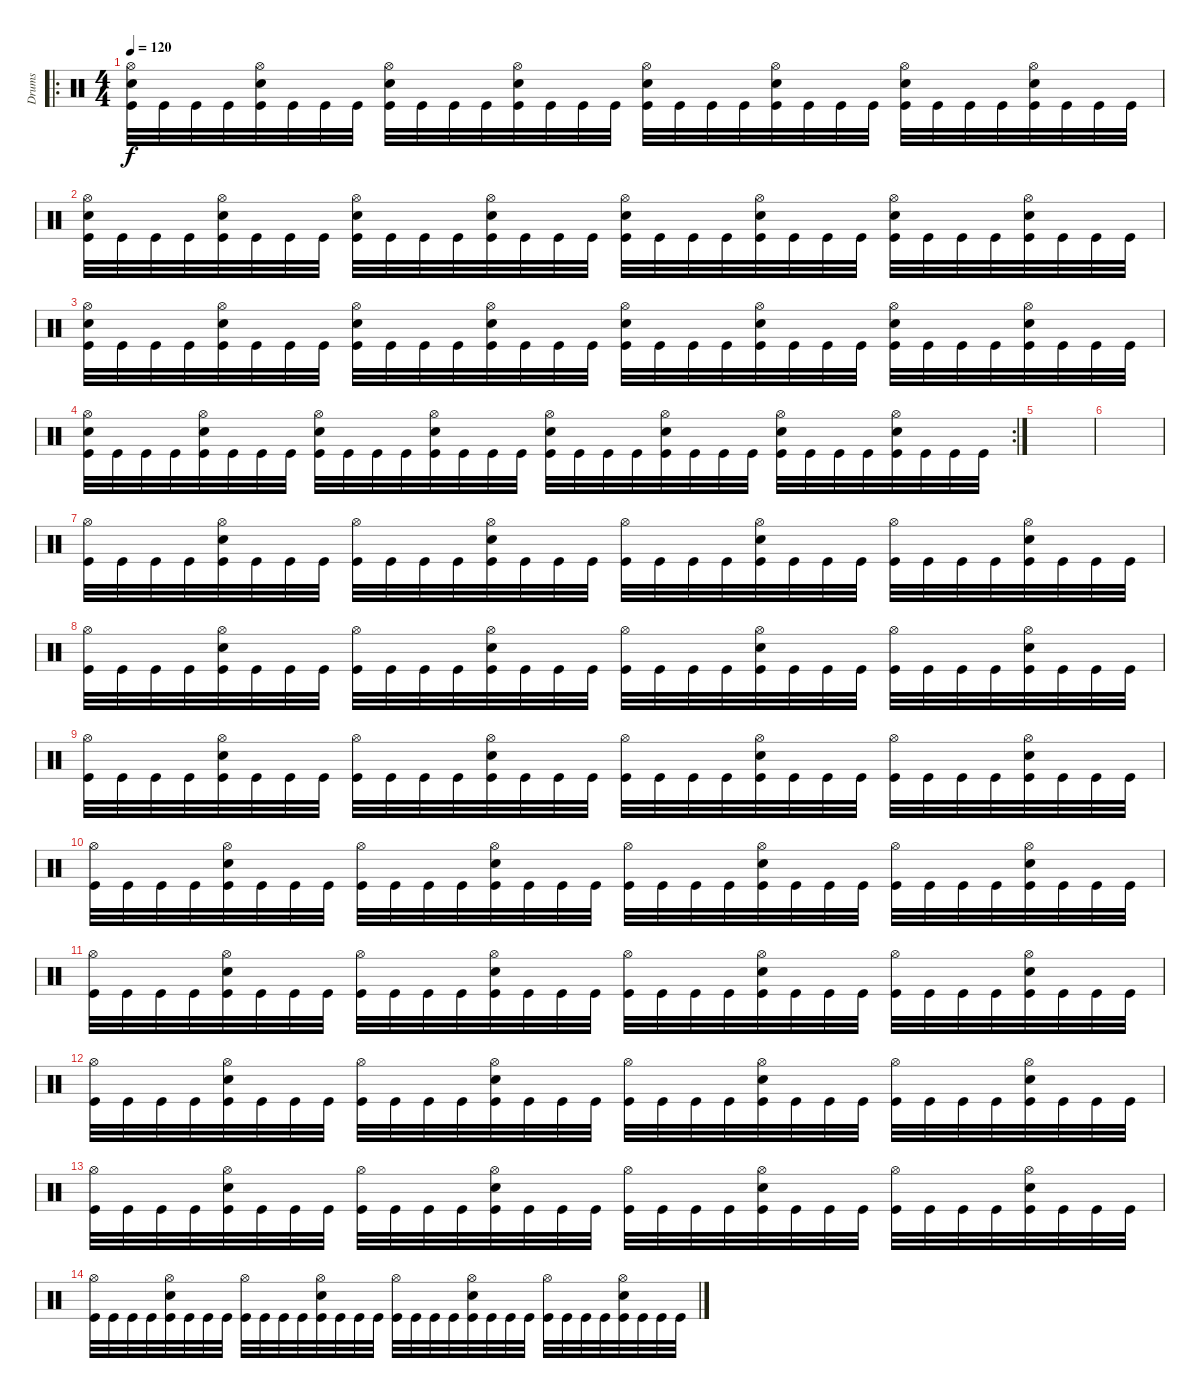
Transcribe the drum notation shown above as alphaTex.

\track ("Drums" "Drums") {instrument percussion}
\staff {score}
\articulation defaults
\ro
\ts (4 4)
\tempo 120
\clef neutral
\ks c
("Hi-Hat (open)" "Snare (hit) 2" "Kick (hit)").32{dy f} "Kick (hit)".32 "Kick (hit)".32 "Kick (hit)".32 ("Hi-Hat (open)" "Snare (hit) 2" "Kick (hit)").32 "Kick (hit)".32 "Kick (hit)".32 "Kick (hit)".32 ("Hi-Hat (open)" "Snare (hit) 2" "Kick (hit)").32 "Kick (hit)".32 "Kick (hit)".32 "Kick (hit)".32 ("Hi-Hat (open)" "Snare (hit) 2" "Kick (hit)").32 "Kick (hit)".32 "Kick (hit)".32 "Kick (hit)".32 ("Hi-Hat (open)" "Snare (hit) 2" "Kick (hit)").32 "Kick (hit)".32 "Kick (hit)".32 "Kick (hit)".32 ("Hi-Hat (open)" "Snare (hit) 2" "Kick (hit)").32 "Kick (hit)".32 "Kick (hit)".32 "Kick (hit)".32 ("Hi-Hat (open)" "Snare (hit) 2" "Kick (hit)").32 "Kick (hit)".32 "Kick (hit)".32 "Kick (hit)".32 ("Hi-Hat (open)" "Snare (hit) 2" "Kick (hit)").32 "Kick (hit)".32 "Kick (hit)".32 "Kick (hit)".32 |
("Hi-Hat (open)" "Snare (hit) 2" "Kick (hit)").32 "Kick (hit)".32 "Kick (hit)".32 "Kick (hit)".32 ("Hi-Hat (open)" "Snare (hit) 2" "Kick (hit)").32 "Kick (hit)".32 "Kick (hit)".32 "Kick (hit)".32 ("Hi-Hat (open)" "Snare (hit) 2" "Kick (hit)").32 "Kick (hit)".32 "Kick (hit)".32 "Kick (hit)".32 ("Hi-Hat (open)" "Snare (hit) 2" "Kick (hit)").32 "Kick (hit)".32 "Kick (hit)".32 "Kick (hit)".32 ("Hi-Hat (open)" "Snare (hit) 2" "Kick (hit)").32 "Kick (hit)".32 "Kick (hit)".32 "Kick (hit)".32 ("Hi-Hat (open)" "Snare (hit) 2" "Kick (hit)").32 "Kick (hit)".32 "Kick (hit)".32 "Kick (hit)".32 ("Hi-Hat (open)" "Snare (hit) 2" "Kick (hit)").32 "Kick (hit)".32 "Kick (hit)".32 "Kick (hit)".32 ("Hi-Hat (open)" "Snare (hit) 2" "Kick (hit)").32 "Kick (hit)".32 "Kick (hit)".32 "Kick (hit)".32 |
("Hi-Hat (open)" "Snare (hit) 2" "Kick (hit)").32 "Kick (hit)".32 "Kick (hit)".32 "Kick (hit)".32 ("Hi-Hat (open)" "Snare (hit) 2" "Kick (hit)").32 "Kick (hit)".32 "Kick (hit)".32 "Kick (hit)".32 ("Hi-Hat (open)" "Snare (hit) 2" "Kick (hit)").32 "Kick (hit)".32 "Kick (hit)".32 "Kick (hit)".32 ("Hi-Hat (open)" "Snare (hit) 2" "Kick (hit)").32 "Kick (hit)".32 "Kick (hit)".32 "Kick (hit)".32 ("Hi-Hat (open)" "Snare (hit) 2" "Kick (hit)").32 "Kick (hit)".32 "Kick (hit)".32 "Kick (hit)".32 ("Hi-Hat (open)" "Snare (hit) 2" "Kick (hit)").32 "Kick (hit)".32 "Kick (hit)".32 "Kick (hit)".32 ("Hi-Hat (open)" "Snare (hit) 2" "Kick (hit)").32 "Kick (hit)".32 "Kick (hit)".32 "Kick (hit)".32 ("Hi-Hat (open)" "Snare (hit) 2" "Kick (hit)").32 "Kick (hit)".32 "Kick (hit)".32 "Kick (hit)".32 |
\rc 2
("Hi-Hat (open)" "Snare (hit) 2" "Kick (hit)").32 "Kick (hit)".32 "Kick (hit)".32 "Kick (hit)".32 ("Hi-Hat (open)" "Snare (hit) 2" "Kick (hit)").32 "Kick (hit)".32 "Kick (hit)".32 "Kick (hit)".32 ("Hi-Hat (open)" "Snare (hit) 2" "Kick (hit)").32 "Kick (hit)".32 "Kick (hit)".32 "Kick (hit)".32 ("Hi-Hat (open)" "Snare (hit) 2" "Kick (hit)").32 "Kick (hit)".32 "Kick (hit)".32 "Kick (hit)".32 ("Hi-Hat (open)" "Snare (hit) 2" "Kick (hit)").32 "Kick (hit)".32 "Kick (hit)".32 "Kick (hit)".32 ("Hi-Hat (open)" "Snare (hit) 2" "Kick (hit)").32 "Kick (hit)".32 "Kick (hit)".32 "Kick (hit)".32 ("Hi-Hat (open)" "Snare (hit) 2" "Kick (hit)").32 "Kick (hit)".32 "Kick (hit)".32 "Kick (hit)".32 ("Hi-Hat (open)" "Snare (hit) 2" "Kick (hit)").32 "Kick (hit)".32 "Kick (hit)".32 "Kick (hit)".32 |
|
|
("Hi-Hat (open)" "Kick (hit)").32 "Kick (hit)".32 "Kick (hit)".32 "Kick (hit)".32 ("Hi-Hat (open)" "Snare (hit) 2" "Kick (hit)").32 "Kick (hit)".32 "Kick (hit)".32 "Kick (hit)".32 ("Hi-Hat (open)" "Kick (hit)").32 "Kick (hit)".32 "Kick (hit)".32 "Kick (hit)".32 ("Hi-Hat (open)" "Snare (hit) 2" "Kick (hit)").32 "Kick (hit)".32 "Kick (hit)".32 "Kick (hit)".32 ("Hi-Hat (open)" "Kick (hit)").32 "Kick (hit)".32 "Kick (hit)".32 "Kick (hit)".32 ("Hi-Hat (open)" "Snare (hit) 2" "Kick (hit)").32 "Kick (hit)".32 "Kick (hit)".32 "Kick (hit)".32 ("Hi-Hat (open)" "Kick (hit)").32 "Kick (hit)".32 "Kick (hit)".32 "Kick (hit)".32 ("Hi-Hat (open)" "Snare (hit) 2" "Kick (hit)").32 "Kick (hit)".32 "Kick (hit)".32 "Kick (hit)".32 |
("Hi-Hat (open)" "Kick (hit)").32 "Kick (hit)".32 "Kick (hit)".32 "Kick (hit)".32 ("Hi-Hat (open)" "Snare (hit) 2" "Kick (hit)").32 "Kick (hit)".32 "Kick (hit)".32 "Kick (hit)".32 ("Hi-Hat (open)" "Kick (hit)").32 "Kick (hit)".32 "Kick (hit)".32 "Kick (hit)".32 ("Hi-Hat (open)" "Snare (hit) 2" "Kick (hit)").32 "Kick (hit)".32 "Kick (hit)".32 "Kick (hit)".32 ("Hi-Hat (open)" "Kick (hit)").32 "Kick (hit)".32 "Kick (hit)".32 "Kick (hit)".32 ("Hi-Hat (open)" "Snare (hit) 2" "Kick (hit)").32 "Kick (hit)".32 "Kick (hit)".32 "Kick (hit)".32 ("Hi-Hat (open)" "Kick (hit)").32 "Kick (hit)".32 "Kick (hit)".32 "Kick (hit)".32 ("Hi-Hat (open)" "Snare (hit) 2" "Kick (hit)").32 "Kick (hit)".32 "Kick (hit)".32 "Kick (hit)".32 |
("Hi-Hat (open)" "Kick (hit)").32 "Kick (hit)".32 "Kick (hit)".32 "Kick (hit)".32 ("Hi-Hat (open)" "Snare (hit) 2" "Kick (hit)").32 "Kick (hit)".32 "Kick (hit)".32 "Kick (hit)".32 ("Hi-Hat (open)" "Kick (hit)").32 "Kick (hit)".32 "Kick (hit)".32 "Kick (hit)".32 ("Hi-Hat (open)" "Snare (hit) 2" "Kick (hit)").32 "Kick (hit)".32 "Kick (hit)".32 "Kick (hit)".32 ("Hi-Hat (open)" "Kick (hit)").32 "Kick (hit)".32 "Kick (hit)".32 "Kick (hit)".32 ("Hi-Hat (open)" "Snare (hit) 2" "Kick (hit)").32 "Kick (hit)".32 "Kick (hit)".32 "Kick (hit)".32 ("Hi-Hat (open)" "Kick (hit)").32 "Kick (hit)".32 "Kick (hit)".32 "Kick (hit)".32 ("Hi-Hat (open)" "Snare (hit) 2" "Kick (hit)").32 "Kick (hit)".32 "Kick (hit)".32 "Kick (hit)".32 |
("Hi-Hat (open)" "Kick (hit)").32 "Kick (hit)".32 "Kick (hit)".32 "Kick (hit)".32 ("Hi-Hat (open)" "Snare (hit) 2" "Kick (hit)").32 "Kick (hit)".32 "Kick (hit)".32 "Kick (hit)".32 ("Hi-Hat (open)" "Kick (hit)").32 "Kick (hit)".32 "Kick (hit)".32 "Kick (hit)".32 ("Hi-Hat (open)" "Snare (hit) 2" "Kick (hit)").32 "Kick (hit)".32 "Kick (hit)".32 "Kick (hit)".32 ("Hi-Hat (open)" "Kick (hit)").32 "Kick (hit)".32 "Kick (hit)".32 "Kick (hit)".32 ("Hi-Hat (open)" "Snare (hit) 2" "Kick (hit)").32 "Kick (hit)".32 "Kick (hit)".32 "Kick (hit)".32 ("Hi-Hat (open)" "Kick (hit)").32 "Kick (hit)".32 "Kick (hit)".32 "Kick (hit)".32 ("Hi-Hat (open)" "Snare (hit) 2" "Kick (hit)").32 "Kick (hit)".32 "Kick (hit)".32 "Kick (hit)".32 |
("Hi-Hat (open)" "Kick (hit)").32 "Kick (hit)".32 "Kick (hit)".32 "Kick (hit)".32 ("Hi-Hat (open)" "Snare (hit) 2" "Kick (hit)").32 "Kick (hit)".32 "Kick (hit)".32 "Kick (hit)".32 ("Hi-Hat (open)" "Kick (hit)").32 "Kick (hit)".32 "Kick (hit)".32 "Kick (hit)".32 ("Hi-Hat (open)" "Snare (hit) 2" "Kick (hit)").32 "Kick (hit)".32 "Kick (hit)".32 "Kick (hit)".32 ("Hi-Hat (open)" "Kick (hit)").32 "Kick (hit)".32 "Kick (hit)".32 "Kick (hit)".32 ("Hi-Hat (open)" "Snare (hit) 2" "Kick (hit)").32 "Kick (hit)".32 "Kick (hit)".32 "Kick (hit)".32 ("Hi-Hat (open)" "Kick (hit)").32 "Kick (hit)".32 "Kick (hit)".32 "Kick (hit)".32 ("Hi-Hat (open)" "Snare (hit) 2" "Kick (hit)").32 "Kick (hit)".32 "Kick (hit)".32 "Kick (hit)".32 |
("Hi-Hat (open)" "Kick (hit)").32 "Kick (hit)".32 "Kick (hit)".32 "Kick (hit)".32 ("Hi-Hat (open)" "Snare (hit) 2" "Kick (hit)").32 "Kick (hit)".32 "Kick (hit)".32 "Kick (hit)".32 ("Hi-Hat (open)" "Kick (hit)").32 "Kick (hit)".32 "Kick (hit)".32 "Kick (hit)".32 ("Hi-Hat (open)" "Snare (hit) 2" "Kick (hit)").32 "Kick (hit)".32 "Kick (hit)".32 "Kick (hit)".32 ("Hi-Hat (open)" "Kick (hit)").32 "Kick (hit)".32 "Kick (hit)".32 "Kick (hit)".32 ("Hi-Hat (open)" "Snare (hit) 2" "Kick (hit)").32 "Kick (hit)".32 "Kick (hit)".32 "Kick (hit)".32 ("Hi-Hat (open)" "Kick (hit)").32 "Kick (hit)".32 "Kick (hit)".32 "Kick (hit)".32 ("Hi-Hat (open)" "Snare (hit) 2" "Kick (hit)").32 "Kick (hit)".32 "Kick (hit)".32 "Kick (hit)".32 |
("Hi-Hat (open)" "Kick (hit)").32 "Kick (hit)".32 "Kick (hit)".32 "Kick (hit)".32 ("Hi-Hat (open)" "Snare (hit) 2" "Kick (hit)").32 "Kick (hit)".32 "Kick (hit)".32 "Kick (hit)".32 ("Hi-Hat (open)" "Kick (hit)").32 "Kick (hit)".32 "Kick (hit)".32 "Kick (hit)".32 ("Hi-Hat (open)" "Snare (hit) 2" "Kick (hit)").32 "Kick (hit)".32 "Kick (hit)".32 "Kick (hit)".32 ("Hi-Hat (open)" "Kick (hit)").32 "Kick (hit)".32 "Kick (hit)".32 "Kick (hit)".32 ("Hi-Hat (open)" "Snare (hit) 2" "Kick (hit)").32 "Kick (hit)".32 "Kick (hit)".32 "Kick (hit)".32 ("Hi-Hat (open)" "Kick (hit)").32 "Kick (hit)".32 "Kick (hit)".32 "Kick (hit)".32 ("Hi-Hat (open)" "Snare (hit) 2" "Kick (hit)").32 "Kick (hit)".32 "Kick (hit)".32 "Kick (hit)".32 |
("Hi-Hat (open)" "Kick (hit)").32 "Kick (hit)".32 "Kick (hit)".32 "Kick (hit)".32 ("Hi-Hat (open)" "Snare (hit) 2" "Kick (hit)").32 "Kick (hit)".32 "Kick (hit)".32 "Kick (hit)".32 ("Hi-Hat (open)" "Kick (hit)").32 "Kick (hit)".32 "Kick (hit)".32 "Kick (hit)".32 ("Hi-Hat (open)" "Snare (hit) 2" "Kick (hit)").32 "Kick (hit)".32 "Kick (hit)".32 "Kick (hit)".32 ("Hi-Hat (open)" "Kick (hit)").32 "Kick (hit)".32 "Kick (hit)".32 "Kick (hit)".32 ("Hi-Hat (open)" "Snare (hit) 2" "Kick (hit)").32 "Kick (hit)".32 "Kick (hit)".32 "Kick (hit)".32 ("Hi-Hat (open)" "Kick (hit)").32 "Kick (hit)".32 "Kick (hit)".32 "Kick (hit)".32 ("Hi-Hat (open)" "Snare (hit) 2" "Kick (hit)").32 "Kick (hit)".32 "Kick (hit)".32 "Kick (hit)".32
